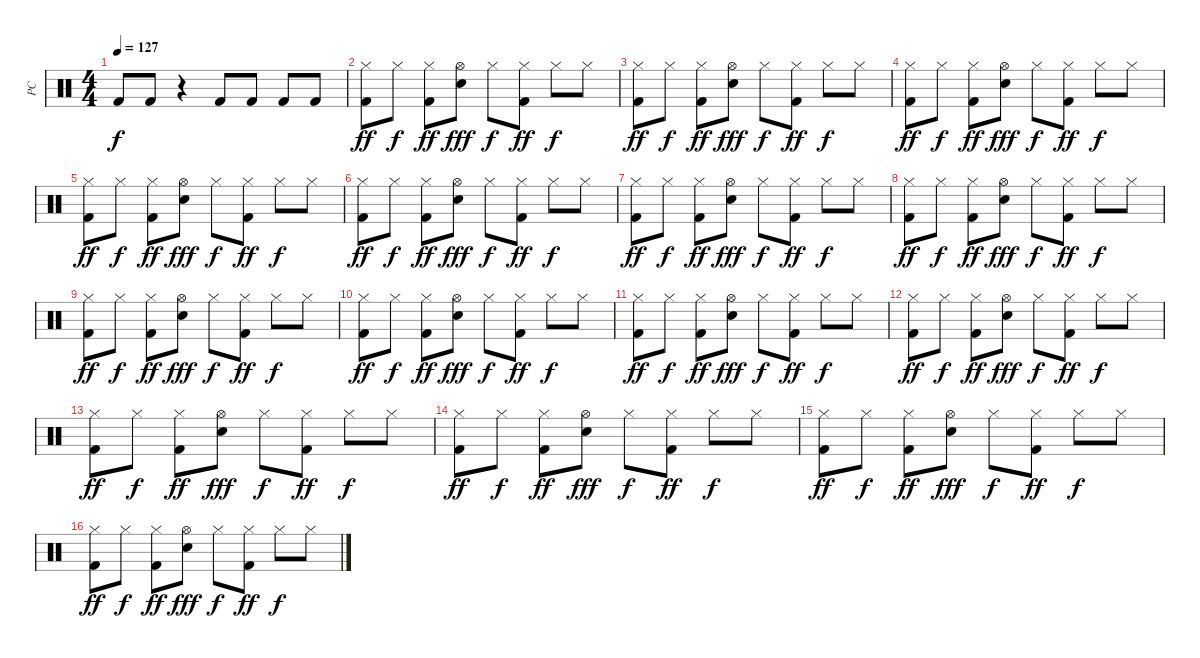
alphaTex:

\track ("PC" "PC") {instrument percussion}
\staff {score}
\articulation defaults
\ts (4 4)
\tempo 127
\clef neutral
\ks c "Kick (hit) 2".8{dy f} "Kick (hit) 2".8
r.4 "Kick (hit) 2".8 "Kick (hit) 2".8 "Kick (hit) 2".8 "Kick (hit) 2".8 |
("Hi-Hat (closed)" "Kick (hit) 2").8{dy ff} "Hi-Hat (closed)".8{dy f} ("Hi-Hat (closed)" "Kick (hit) 2").8{dy ff} ("Hi-Hat (open)" "Snare (hit) 2").8{dy fff} "Hi-Hat (closed)".8{dy f} ("Hi-Hat (closed)" "Kick (hit) 2").8{dy ff} "Hi-Hat (closed)".8{dy f} "Hi-Hat (closed)".8 |
("Hi-Hat (closed)" "Kick (hit) 2").8{dy ff} "Hi-Hat (closed)".8{dy f} ("Hi-Hat (closed)" "Kick (hit) 2").8{dy ff} ("Hi-Hat (open)" "Snare (hit) 2").8{dy fff} "Hi-Hat (closed)".8{dy f} ("Hi-Hat (closed)" "Kick (hit) 2").8{dy ff} "Hi-Hat (closed)".8{dy f} "Hi-Hat (closed)".8 |
("Hi-Hat (closed)" "Kick (hit) 2").8{dy ff} "Hi-Hat (closed)".8{dy f} ("Hi-Hat (closed)" "Kick (hit) 2").8{dy ff} ("Hi-Hat (open)" "Snare (hit) 2").8{dy fff} "Hi-Hat (closed)".8{dy f} ("Hi-Hat (closed)" "Kick (hit) 2").8{dy ff} "Hi-Hat (closed)".8{dy f} "Hi-Hat (closed)".8 |
("Hi-Hat (closed)" "Kick (hit) 2").8{dy ff} "Hi-Hat (closed)".8{dy f} ("Hi-Hat (closed)" "Kick (hit) 2").8{dy ff} ("Hi-Hat (open)" "Snare (hit) 2").8{dy fff} "Hi-Hat (closed)".8{dy f} ("Hi-Hat (closed)" "Kick (hit) 2").8{dy ff} "Hi-Hat (closed)".8{dy f} "Hi-Hat (closed)".8 |
("Hi-Hat (closed)" "Kick (hit) 2").8{dy ff} "Hi-Hat (closed)".8{dy f} ("Hi-Hat (closed)" "Kick (hit) 2").8{dy ff} ("Hi-Hat (open)" "Snare (hit) 2").8{dy fff} "Hi-Hat (closed)".8{dy f} ("Hi-Hat (closed)" "Kick (hit) 2").8{dy ff} "Hi-Hat (closed)".8{dy f} "Hi-Hat (closed)".8 |
("Hi-Hat (closed)" "Kick (hit) 2").8{dy ff} "Hi-Hat (closed)".8{dy f} ("Hi-Hat (closed)" "Kick (hit) 2").8{dy ff} ("Hi-Hat (open)" "Snare (hit) 2").8{dy fff} "Hi-Hat (closed)".8{dy f} ("Hi-Hat (closed)" "Kick (hit) 2").8{dy ff} "Hi-Hat (closed)".8{dy f} "Hi-Hat (closed)".8 |
("Hi-Hat (closed)" "Kick (hit) 2").8{dy ff} "Hi-Hat (closed)".8{dy f} ("Hi-Hat (closed)" "Kick (hit) 2").8{dy ff} ("Hi-Hat (open)" "Snare (hit) 2").8{dy fff} "Hi-Hat (closed)".8{dy f} ("Hi-Hat (closed)" "Kick (hit) 2").8{dy ff} "Hi-Hat (closed)".8{dy f} "Hi-Hat (closed)".8 |
("Hi-Hat (closed)" "Kick (hit) 2").8{dy ff} "Hi-Hat (closed)".8{dy f} ("Hi-Hat (closed)" "Kick (hit) 2").8{dy ff} ("Hi-Hat (open)" "Snare (hit) 2").8{dy fff} "Hi-Hat (closed)".8{dy f} ("Hi-Hat (closed)" "Kick (hit) 2").8{dy ff} "Hi-Hat (closed)".8{dy f} "Hi-Hat (closed)".8 |
("Hi-Hat (closed)" "Kick (hit) 2").8{dy ff} "Hi-Hat (closed)".8{dy f} ("Hi-Hat (closed)" "Kick (hit) 2").8{dy ff} ("Hi-Hat (open)" "Snare (hit) 2").8{dy fff} "Hi-Hat (closed)".8{dy f} ("Hi-Hat (closed)" "Kick (hit) 2").8{dy ff} "Hi-Hat (closed)".8{dy f} "Hi-Hat (closed)".8 |
("Hi-Hat (closed)" "Kick (hit) 2").8{dy ff} "Hi-Hat (closed)".8{dy f} ("Hi-Hat (closed)" "Kick (hit) 2").8{dy ff} ("Hi-Hat (open)" "Snare (hit) 2").8{dy fff} "Hi-Hat (closed)".8{dy f} ("Hi-Hat (closed)" "Kick (hit) 2").8{dy ff} "Hi-Hat (closed)".8{dy f} "Hi-Hat (closed)".8 |
("Hi-Hat (closed)" "Kick (hit) 2").8{dy ff} "Hi-Hat (closed)".8{dy f} ("Hi-Hat (closed)" "Kick (hit) 2").8{dy ff} ("Hi-Hat (open)" "Snare (hit) 2").8{dy fff} "Hi-Hat (closed)".8{dy f} ("Hi-Hat (closed)" "Kick (hit) 2").8{dy ff} "Hi-Hat (closed)".8{dy f} "Hi-Hat (closed)".8 |
("Hi-Hat (closed)" "Kick (hit) 2").8{dy ff} "Hi-Hat (closed)".8{dy f} ("Hi-Hat (closed)" "Kick (hit) 2").8{dy ff} ("Hi-Hat (open)" "Snare (hit) 2").8{dy fff} "Hi-Hat (closed)".8{dy f} ("Hi-Hat (closed)" "Kick (hit) 2").8{dy ff} "Hi-Hat (closed)".8{dy f} "Hi-Hat (closed)".8 |
("Hi-Hat (closed)" "Kick (hit) 2").8{dy ff} "Hi-Hat (closed)".8{dy f} ("Hi-Hat (closed)" "Kick (hit) 2").8{dy ff} ("Hi-Hat (open)" "Snare (hit) 2").8{dy fff} "Hi-Hat (closed)".8{dy f} ("Hi-Hat (closed)" "Kick (hit) 2").8{dy ff} "Hi-Hat (closed)".8{dy f} "Hi-Hat (closed)".8 |
("Hi-Hat (closed)" "Kick (hit) 2").8{dy ff} "Hi-Hat (closed)".8{dy f} ("Hi-Hat (closed)" "Kick (hit) 2").8{dy ff} ("Hi-Hat (open)" "Snare (hit) 2").8{dy fff} "Hi-Hat (closed)".8{dy f} ("Hi-Hat (closed)" "Kick (hit) 2").8{dy ff} "Hi-Hat (closed)".8{dy f} "Hi-Hat (closed)".8 |
("Hi-Hat (closed)" "Kick (hit) 2").8{dy ff} "Hi-Hat (closed)".8{dy f} ("Hi-Hat (closed)" "Kick (hit) 2").8{dy ff} ("Hi-Hat (open)" "Snare (hit) 2").8{dy fff} "Hi-Hat (closed)".8{dy f} ("Hi-Hat (closed)" "Kick (hit) 2").8{dy ff} "Hi-Hat (closed)".8{dy f} "Hi-Hat (closed)".8
